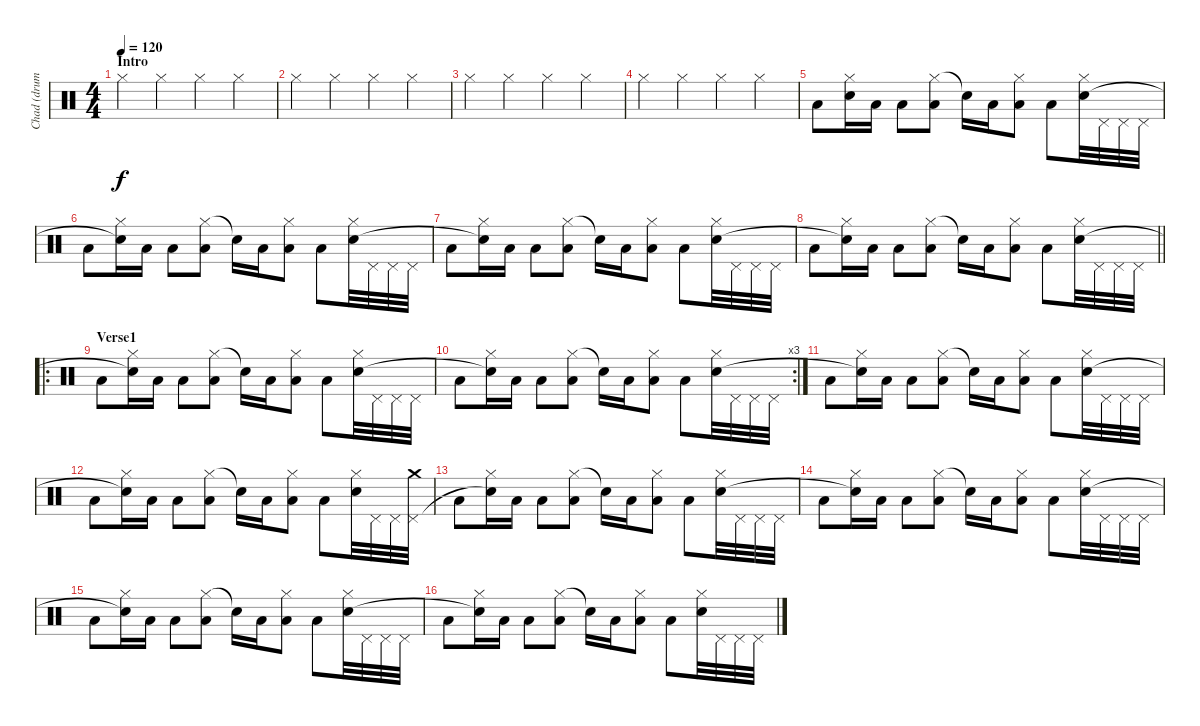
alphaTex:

\track ("Chad (drums)" "Chad (drum") {instrument percussion}
\staff {score}
\articulation defaults
\ts (4 4)
\section ("" "Intro")
\tempo 120
\clef neutral
\ks c "Hi-Hat (closed)".4{dy f} "Hi-Hat (closed)".4 "Hi-Hat (closed)".4 "Hi-Hat (closed)".4
|
"Hi-Hat (closed)".4 "Hi-Hat (closed)".4 "Hi-Hat (closed)".4 "Hi-Hat (closed)".4 |
"Hi-Hat (closed)".4 "Hi-Hat (closed)".4 "Hi-Hat (closed)".4 "Hi-Hat (closed)".4 |
"Hi-Hat (closed)".4 "Hi-Hat (closed)".4 "Hi-Hat (closed)".4 "Hi-Hat (closed)".4 |
"Low Tom (hit)".8 ("Hi-Hat (closed)" "Snare (hit)").16 "Low Tom (hit)".16 "Low Floor Tom (hit)".8 ("Hi-Hat (closed)" "Low Tom (hit)").8 "Snare (hit)"{t}.16 "Low Tom (hit)".16 ("Hi-Hat (closed)" "Low Floor Tom (hit)").8 "Low Tom (hit)".8 ("Hi-Hat (closed)" "Snare (hit) 2").32 "Pedal Hi-Hat (hit)".32 "Pedal Hi-Hat (hit)".32 "Pedal Hi-Hat (hit)".32 |
"Low Tom (hit)".8 ("Hi-Hat (closed)" "Snare (hit)"{t}).16 "Low Tom (hit)".16 "Low Floor Tom (hit)".8 ("Hi-Hat (closed)" "Low Tom (hit)").8 "Snare (hit)"{t}.16 "Low Tom (hit)".16 ("Hi-Hat (closed)" "Low Floor Tom (hit)").8 "Low Tom (hit)".8 ("Hi-Hat (closed)" "Snare (hit) 2").32 "Pedal Hi-Hat (hit)".32 "Pedal Hi-Hat (hit)".32 "Pedal Hi-Hat (hit)".32 |
"Low Tom (hit)".8 ("Hi-Hat (closed)" "Snare (hit)"{t}).16 "Low Tom (hit)".16 "Low Floor Tom (hit)".8 ("Hi-Hat (closed)" "Low Tom (hit)").8 "Snare (hit)"{t}.16 "Low Tom (hit)".16 ("Hi-Hat (closed)" "Low Floor Tom (hit)").8 "Low Tom (hit)".8 ("Hi-Hat (closed)" "Snare (hit) 2").32 "Pedal Hi-Hat (hit)".32 "Pedal Hi-Hat (hit)".32 "Pedal Hi-Hat (hit)".32 |
\barLineRight lightlight "Low Tom (hit)".8
("Hi-Hat (closed)" "Snare (hit)"{t}).16 "Low Tom (hit)".16 "Low Floor Tom (hit)".8 ("Hi-Hat (closed)" "Low Tom (hit)").8 "Snare (hit)"{t}.16 "Low Tom (hit)".16 ("Hi-Hat (closed)" "Low Floor Tom (hit)").8 "Low Tom (hit)".8 ("Hi-Hat (closed)" "Snare (hit) 2").32 "Pedal Hi-Hat (hit)".32 "Pedal Hi-Hat (hit)".32 "Pedal Hi-Hat (hit)".32 |
\ro
\section ("" "Verse1")
"Low Tom (hit)".8 ("Hi-Hat (closed)" "Snare (hit)"{t}).16 "Low Tom (hit)".16 "Low Floor Tom (hit)".8 ("Hi-Hat (closed)" "Low Tom (hit)").8 "Snare (hit)"{t}.16 "Low Tom (hit)".16 ("Hi-Hat (closed)" "Low Floor Tom (hit)").8 "Low Tom (hit)".8 ("Hi-Hat (closed)" "Snare (hit) 2").32 "Pedal Hi-Hat (hit)".32 "Pedal Hi-Hat (hit)".32 "Pedal Hi-Hat (hit)".32 |
\rc 3 "Low Tom (hit)".8
("Hi-Hat (closed)" "Snare (hit)"{t}).16 "Low Tom (hit)".16 "Low Floor Tom (hit)".8 ("Hi-Hat (closed)" "Low Tom (hit)").8 "Snare (hit)"{t}.16 "Low Tom (hit)".16 ("Hi-Hat (closed)" "Low Floor Tom (hit)").8 "Low Tom (hit)".8 ("Hi-Hat (closed)" "Snare (hit) 2").32 "Pedal Hi-Hat (hit)".32 "Pedal Hi-Hat (hit)".32 "Pedal Hi-Hat (hit)".32 |
"Low Tom (hit)".8 ("Hi-Hat (closed)" "Snare (hit)"{t}).16 "Low Tom (hit)".16 "Low Floor Tom (hit)".8 ("Hi-Hat (closed)" "Low Tom (hit)").8 "Snare (hit)"{t}.16 "Low Tom (hit)".16 ("Hi-Hat (closed)" "Low Floor Tom (hit)").8 "Low Tom (hit)".8 ("Hi-Hat (closed)" "Snare (hit) 2").32 "Pedal Hi-Hat (hit)".32 "Pedal Hi-Hat (hit)".32 "Pedal Hi-Hat (hit)".32 |
"Low Tom (hit)".8 ("Hi-Hat (closed)" "Snare (hit)"{t}).16 "Low Tom (hit)".16 "Low Floor Tom (hit)".8 ("Hi-Hat (closed)" "Low Tom (hit)").8 "Snare (hit)"{t}.16 "Low Tom (hit)".16 ("Hi-Hat (closed)" "Low Floor Tom (hit)").8 "Low Tom (hit)".8 ("Hi-Hat (closed)" "Snare (hit) 2").32 "Pedal Hi-Hat (hit)".32 "Pedal Hi-Hat (hit)".32 ("Crash medium (hit)" "Pedal Hi-Hat (hit)").32 |
"Low Tom (hit)".8 ("Hi-Hat (closed)" "Snare (hit)"{t}).16 "Low Tom (hit)".16 "Low Floor Tom (hit)".8 ("Hi-Hat (closed)" "Low Tom (hit)").8 "Snare (hit)"{t}.16 "Low Tom (hit)".16 ("Hi-Hat (closed)" "Low Floor Tom (hit)").8 "Low Tom (hit)".8 ("Hi-Hat (closed)" "Snare (hit) 2").32 "Pedal Hi-Hat (hit)".32 "Pedal Hi-Hat (hit)".32 "Pedal Hi-Hat (hit)".32 |
"Low Tom (hit)".8 ("Hi-Hat (closed)" "Snare (hit)"{t}).16 "Low Tom (hit)".16 "Low Floor Tom (hit)".8 ("Hi-Hat (closed)" "Low Tom (hit)").8 "Snare (hit)"{t}.16 "Low Tom (hit)".16 ("Hi-Hat (closed)" "Low Floor Tom (hit)").8 "Low Tom (hit)".8 ("Hi-Hat (closed)" "Snare (hit) 2").32 "Pedal Hi-Hat (hit)".32 "Pedal Hi-Hat (hit)".32 "Pedal Hi-Hat (hit)".32 |
"Low Tom (hit)".8 ("Hi-Hat (closed)" "Snare (hit)"{t}).16 "Low Tom (hit)".16 "Low Floor Tom (hit)".8 ("Hi-Hat (closed)" "Low Tom (hit)").8 "Snare (hit)"{t}.16 "Low Tom (hit)".16 ("Hi-Hat (closed)" "Low Floor Tom (hit)").8 "Low Tom (hit)".8 ("Hi-Hat (closed)" "Snare (hit) 2").32 "Pedal Hi-Hat (hit)".32 "Pedal Hi-Hat (hit)".32 "Pedal Hi-Hat (hit)".32 |
"Low Tom (hit)".8 ("Hi-Hat (closed)" "Snare (hit)"{t}).16 "Low Tom (hit)".16 "Low Floor Tom (hit)".8 ("Hi-Hat (closed)" "Low Tom (hit)").8 "Snare (hit)"{t}.16 "Low Tom (hit)".16 ("Hi-Hat (closed)" "Low Floor Tom (hit)").8 "Low Tom (hit)".8 ("Hi-Hat (closed)" "Snare (hit) 2").32 "Pedal Hi-Hat (hit)".32 "Pedal Hi-Hat (hit)".32 "Pedal Hi-Hat (hit)".32
